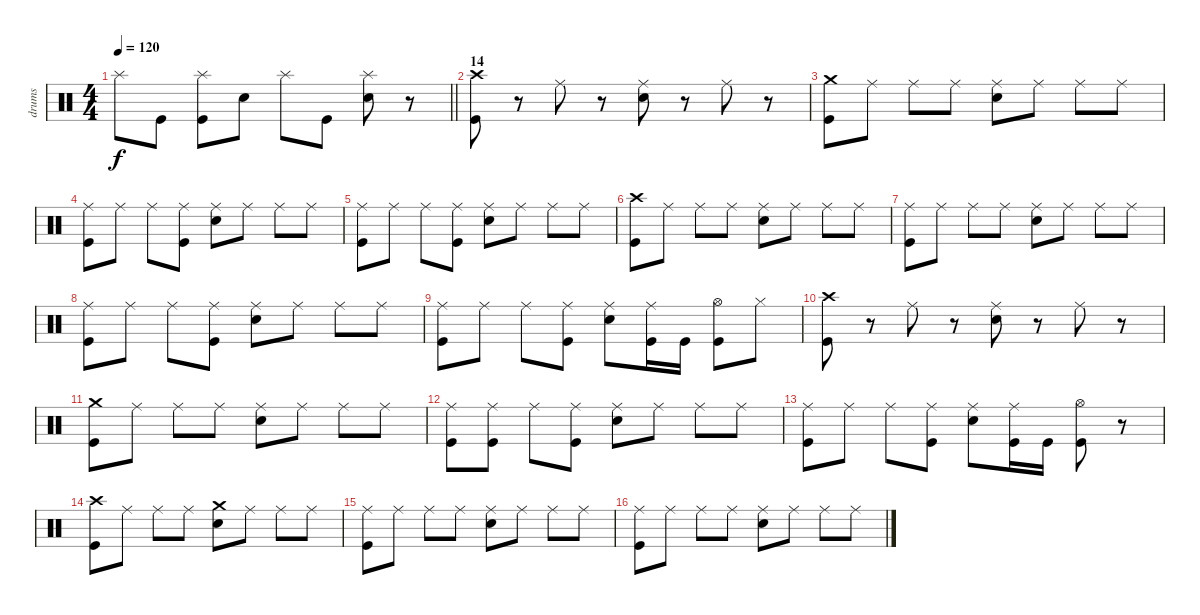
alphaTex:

\track ("drums" "drums") {instrument percussion}
\staff {score}
\articulation defaults
\ts (4 4)
\tempo 120
\clef neutral
\barLineRight lightlight
\ks c "Splash (hit)".8{dy f} "Kick (hit)".8
("Splash (hit)" "Kick (hit)").8 "Electric Snare (hit)".8 "Splash (hit)".8 "Kick (hit)".8 ("Splash (hit)" "Electric Snare (hit)").8 r.8 |
\section ("" "14")
("Crash high (hit)" "Kick (hit)").8 r.8 "Ride (middle)".8 r.8 ("Ride (middle)" "Electric Snare (hit)").8 r.8 "Ride (middle)".8 r.8 |
("Crash medium (hit)" "Kick (hit)").8 "Ride (middle)".8 "Ride (middle)".8 "Ride (middle)".8 ("Ride (middle)" "Electric Snare (hit)").8 "Ride (middle)".8 "Ride (middle)".8 "Ride (middle)".8 |
("Ride (middle)" "Kick (hit)").8 "Ride (middle)".8 "Ride (middle)".8 ("Ride (middle)" "Kick (hit)").8 ("Ride (middle)" "Electric Snare (hit)").8 "Ride (middle)".8 "Ride (middle)".8 "Ride (middle)".8 |
("Ride (middle)" "Kick (hit)").8 "Ride (middle)".8 "Ride (middle)".8 ("Ride (middle)" "Kick (hit)").8 ("Ride (middle)" "Electric Snare (hit)").8 "Ride (middle)".8 "Ride (middle)".8 "Ride (middle)".8 |
("Crash high (hit)" "Kick (hit)").8 "Ride (middle)".8 "Ride (middle)".8 "Ride (middle)".8 ("Ride (middle)" "Electric Snare (hit)").8 "Ride (middle)".8 "Ride (middle)".8 "Ride (middle)".8 |
("Ride (middle)" "Kick (hit)").8 "Ride (middle)".8 "Ride (middle)".8 "Ride (middle)".8 ("Ride (middle)" "Electric Snare (hit)").8 "Ride (middle)".8 "Ride (middle)".8 "Ride (middle)".8 |
("Ride (middle)" "Kick (hit)").8 "Ride (middle)".8 "Ride (middle)".8 ("Ride (middle)" "Kick (hit)").8 ("Ride (middle)" "Electric Snare (hit)").8 "Ride (middle)".8 "Ride (middle)".8 "Ride (middle)".8 |
("Ride (middle)" "Kick (hit)").8 "Ride (middle)".8 "Ride (middle)".8 ("Ride (middle)" "Kick (hit)").8 ("Ride (middle)" "Electric Snare (hit)").8 ("Ride (middle)" "Kick (hit)").16 "Kick (hit)".16 ("Hi-Hat (open)" "Kick (hit)").8 "Hi-Hat (closed)".8 |
("Crash high (hit)" "Kick (hit)").8 r.8 "Ride (middle)".8 r.8 ("Ride (middle)" "Electric Snare (hit)").8 r.8 "Ride (middle)".8 r.8 |
("Crash medium (hit)" "Kick (hit)").8 "Ride (middle)".8 "Ride (middle)".8 "Ride (middle)".8 ("Ride (middle)" "Electric Snare (hit)").8 "Ride (middle)".8 "Ride (middle)".8 "Ride (middle)".8 |
("Ride (middle)" "Kick (hit)").8 ("Ride (middle)" "Kick (hit)").8 "Ride (middle)".8 ("Ride (middle)" "Kick (hit)").8 ("Ride (middle)" "Electric Snare (hit)").8 "Ride (middle)".8 "Ride (middle)".8 "Ride (middle)".8 |
("Ride (middle)" "Kick (hit)").8 "Ride (middle)".8 "Ride (middle)".8 ("Ride (middle)" "Kick (hit)").8 ("Ride (middle)" "Electric Snare (hit)").8 ("Ride (middle)" "Kick (hit)").16 "Kick (hit)".16 ("Hi-Hat (open)" "Kick (hit)").8 r.8 |
("Crash high (hit)" "Kick (hit)").8 "Ride (middle)".8 "Ride (middle)".8 "Ride (middle)".8 ("Crash medium (hit)" "Electric Snare (hit)").8 "Ride (middle)".8 "Ride (middle)".8 "Ride (middle)".8 |
("Ride (middle)" "Kick (hit)").8 "Ride (middle)".8 "Ride (middle)".8 "Ride (middle)".8 ("Ride (middle)" "Electric Snare (hit)").8 "Ride (middle)".8 "Ride (middle)".8 "Ride (middle)".8 |
("Ride (middle)" "Kick (hit)").8 "Ride (middle)".8 "Ride (middle)".8 "Ride (middle)".8 ("Ride (middle)" "Electric Snare (hit)").8 "Ride (middle)".8 "Ride (middle)".8 "Ride (middle)".8
